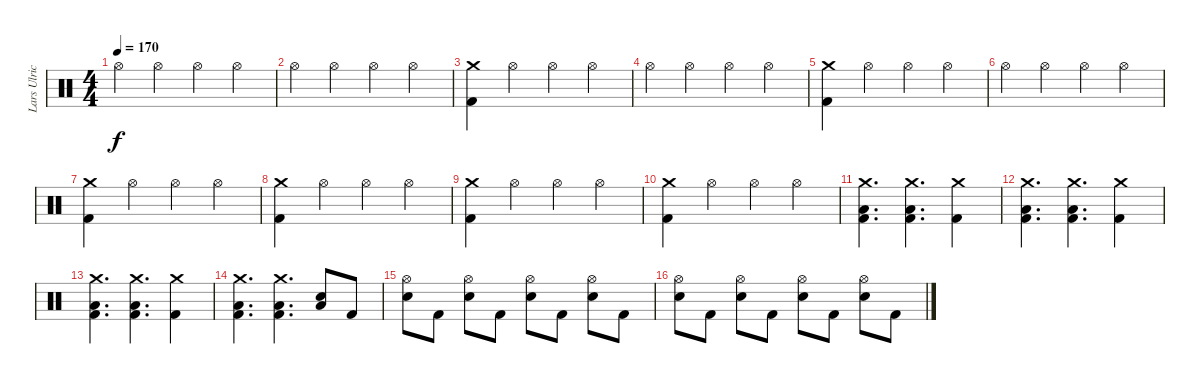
\track ("Lars Ulrich" "Lars Ulric") {instrument percussion}
\staff {score}
\articulation defaults
\ts (4 4)
\tempo 170
\clef neutral
\ks c "Hi-Hat (open)".4{dy f} "Hi-Hat (open)".4 "Hi-Hat (open)".4 "Hi-Hat (open)".4
|
"Hi-Hat (open)".4 "Hi-Hat (open)".4 "Hi-Hat (open)".4 "Hi-Hat (open)".4 |
("Crash medium (hit)" "Kick (hit) 2").4 "Hi-Hat (open)".4 "Hi-Hat (open)".4 "Hi-Hat (open)".4 |
"Hi-Hat (open)".4 "Hi-Hat (open)".4 "Hi-Hat (open)".4 "Hi-Hat (open)".4 |
("Crash medium (hit)" "Kick (hit) 2").4 "Hi-Hat (open)".4 "Hi-Hat (open)".4 "Hi-Hat (open)".4 |
"Hi-Hat (open)".4 "Hi-Hat (open)".4 "Hi-Hat (open)".4 "Hi-Hat (open)".4 |
("Crash medium (hit)" "Kick (hit) 2").4 "Hi-Hat (open)".4 "Hi-Hat (open)".4 "Hi-Hat (open)".4 |
("Crash medium (hit)" "Kick (hit) 2").4 "Hi-Hat (open)".4 "Hi-Hat (open)".4 "Hi-Hat (open)".4 |
("Crash medium (hit)" "Kick (hit) 2").4 "Hi-Hat (open)".4 "Hi-Hat (open)".4 "Hi-Hat (open)".4 |
("Crash medium (hit)" "Kick (hit) 2").4 "Hi-Hat (open)".4 "Hi-Hat (open)".4 "Hi-Hat (open)".4 |
("Crash medium (hit)" "Low Floor Tom (hit)" "Kick (hit) 2").4{d} ("Crash medium (hit)" "Low Floor Tom (hit)" "Kick (hit) 2").4{d} ("Crash medium (hit)" "Kick (hit) 2").4 |
("Crash medium (hit)" "Low Floor Tom (hit)" "Kick (hit) 2").4{d} ("Crash medium (hit)" "Low Floor Tom (hit)" "Kick (hit) 2").4{d} ("Crash medium (hit)" "Kick (hit) 2").4 |
("Crash medium (hit)" "Low Floor Tom (hit)" "Kick (hit) 2").4{d} ("Crash medium (hit)" "Low Floor Tom (hit)" "Kick (hit) 2").4{d} ("Crash medium (hit)" "Kick (hit) 2").4 |
("Crash medium (hit)" "Low Floor Tom (hit)" "Kick (hit) 2").4{d} ("Crash medium (hit)" "Low Floor Tom (hit)" "Kick (hit) 2").4{d} ("Electric Snare (hit)" "Low Floor Tom (hit)").8 "Kick (hit) 2".8 |
("Hi-Hat (open)" "Electric Snare (hit)").8 "Kick (hit) 2".8 ("Hi-Hat (open)" "Electric Snare (hit)").8 "Kick (hit) 2".8 ("Hi-Hat (open)" "Electric Snare (hit)").8 "Kick (hit) 2".8 ("Hi-Hat (open)" "Electric Snare (hit)").8 "Kick (hit) 2".8 |
("Hi-Hat (open)" "Electric Snare (hit)").8 "Kick (hit) 2".8 ("Hi-Hat (open)" "Electric Snare (hit)").8 "Kick (hit) 2".8 ("Hi-Hat (open)" "Electric Snare (hit)").8 "Kick (hit) 2".8 ("Hi-Hat (open)" "Electric Snare (hit)").8 "Kick (hit) 2".8
